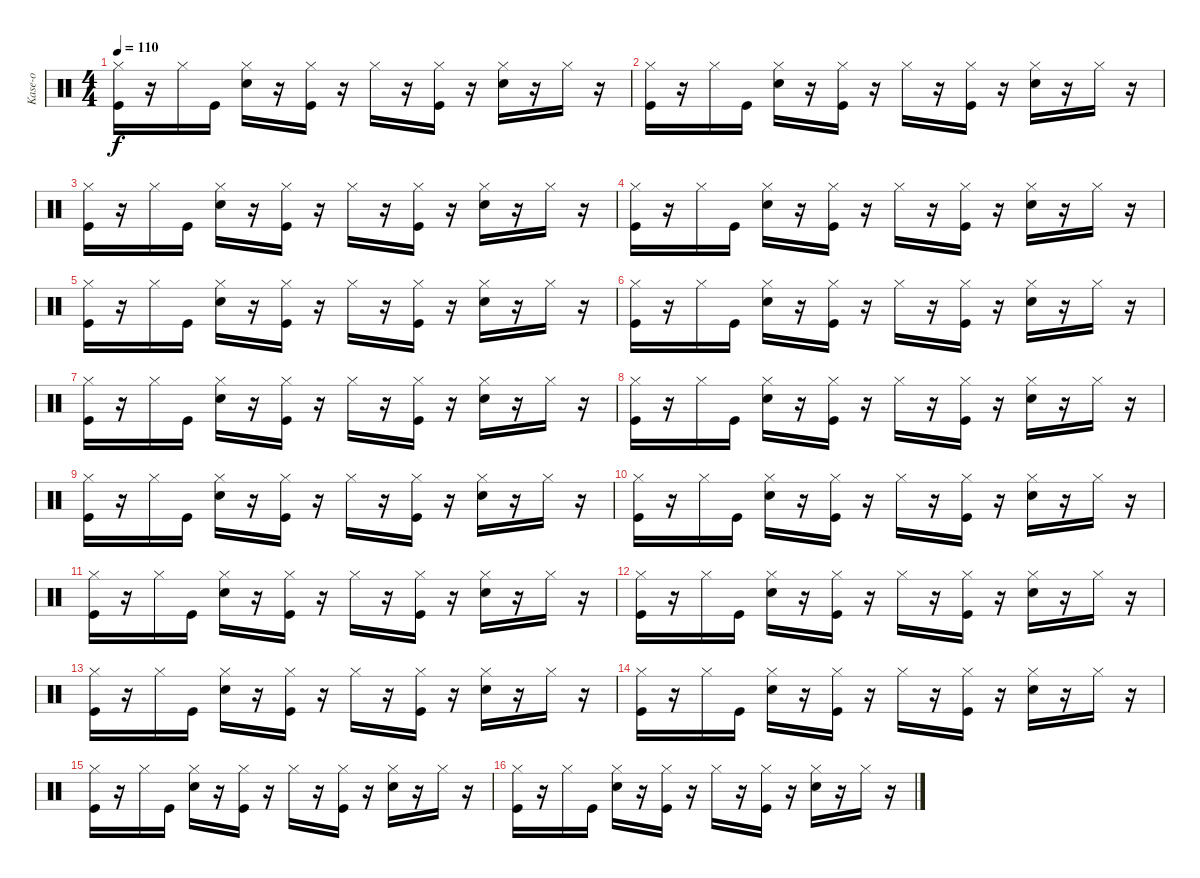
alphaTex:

\track ("Kase-o" "Kase-o") {instrument percussion}
\staff {score}
\articulation defaults
\ts (4 4)
\tempo 110
\clef neutral
\ks c
("Hi-Hat (closed)" "Kick (hit)").16{dy f} r.16 "Hi-Hat (closed)".16 "Kick (hit)".16 ("Hi-Hat (closed)" "Electric Snare (hit)").16 r.16 ("Hi-Hat (closed)" "Kick (hit)").16 r.16 "Hi-Hat (closed)".16 r.16 ("Hi-Hat (closed)" "Kick (hit)").16 r.16 ("Hi-Hat (closed)" "Electric Snare (hit)").16 r.16 "Hi-Hat (closed)".16 r.16 |
("Hi-Hat (closed)" "Kick (hit)").16 r.16 "Hi-Hat (closed)".16 "Kick (hit)".16 ("Hi-Hat (closed)" "Electric Snare (hit)").16 r.16 ("Hi-Hat (closed)" "Kick (hit)").16 r.16 "Hi-Hat (closed)".16 r.16 ("Hi-Hat (closed)" "Kick (hit)").16 r.16 ("Hi-Hat (closed)" "Electric Snare (hit)").16 r.16 "Hi-Hat (closed)".16 r.16 |
("Hi-Hat (closed)" "Kick (hit)").16 r.16 "Hi-Hat (closed)".16 "Kick (hit)".16 ("Hi-Hat (closed)" "Electric Snare (hit)").16 r.16 ("Hi-Hat (closed)" "Kick (hit)").16 r.16 "Hi-Hat (closed)".16 r.16 ("Hi-Hat (closed)" "Kick (hit)").16 r.16 ("Hi-Hat (closed)" "Electric Snare (hit)").16 r.16 "Hi-Hat (closed)".16 r.16 |
("Hi-Hat (closed)" "Kick (hit)").16 r.16 "Hi-Hat (closed)".16 "Kick (hit)".16 ("Hi-Hat (closed)" "Electric Snare (hit)").16 r.16 ("Hi-Hat (closed)" "Kick (hit)").16 r.16 "Hi-Hat (closed)".16 r.16 ("Hi-Hat (closed)" "Kick (hit)").16 r.16 ("Hi-Hat (closed)" "Electric Snare (hit)").16 r.16 "Hi-Hat (closed)".16 r.16 |
("Hi-Hat (closed)" "Kick (hit)").16 r.16 "Hi-Hat (closed)".16 "Kick (hit)".16 ("Hi-Hat (closed)" "Electric Snare (hit)").16 r.16 ("Hi-Hat (closed)" "Kick (hit)").16 r.16 "Hi-Hat (closed)".16 r.16 ("Hi-Hat (closed)" "Kick (hit)").16 r.16 ("Hi-Hat (closed)" "Electric Snare (hit)").16 r.16 "Hi-Hat (closed)".16 r.16 |
("Hi-Hat (closed)" "Kick (hit)").16 r.16 "Hi-Hat (closed)".16 "Kick (hit)".16 ("Hi-Hat (closed)" "Electric Snare (hit)").16 r.16 ("Hi-Hat (closed)" "Kick (hit)").16 r.16 "Hi-Hat (closed)".16 r.16 ("Hi-Hat (closed)" "Kick (hit)").16 r.16 ("Hi-Hat (closed)" "Electric Snare (hit)").16 r.16 "Hi-Hat (closed)".16 r.16 |
("Hi-Hat (closed)" "Kick (hit)").16 r.16 "Hi-Hat (closed)".16 "Kick (hit)".16 ("Hi-Hat (closed)" "Electric Snare (hit)").16 r.16 ("Hi-Hat (closed)" "Kick (hit)").16 r.16 "Hi-Hat (closed)".16 r.16 ("Hi-Hat (closed)" "Kick (hit)").16 r.16 ("Hi-Hat (closed)" "Electric Snare (hit)").16 r.16 "Hi-Hat (closed)".16 r.16 |
("Hi-Hat (closed)" "Kick (hit)").16 r.16 "Hi-Hat (closed)".16 "Kick (hit)".16 ("Hi-Hat (closed)" "Electric Snare (hit)").16 r.16 ("Hi-Hat (closed)" "Kick (hit)").16 r.16 "Hi-Hat (closed)".16 r.16 ("Hi-Hat (closed)" "Kick (hit)").16 r.16 ("Hi-Hat (closed)" "Electric Snare (hit)").16 r.16 "Hi-Hat (closed)".16 r.16 |
("Hi-Hat (closed)" "Kick (hit)").16 r.16 "Hi-Hat (closed)".16 "Kick (hit)".16 ("Hi-Hat (closed)" "Electric Snare (hit)").16 r.16 ("Hi-Hat (closed)" "Kick (hit)").16 r.16 "Hi-Hat (closed)".16 r.16 ("Hi-Hat (closed)" "Kick (hit)").16 r.16 ("Hi-Hat (closed)" "Electric Snare (hit)").16 r.16 "Hi-Hat (closed)".16 r.16 |
("Hi-Hat (closed)" "Kick (hit)").16 r.16 "Hi-Hat (closed)".16 "Kick (hit)".16 ("Hi-Hat (closed)" "Electric Snare (hit)").16 r.16 ("Hi-Hat (closed)" "Kick (hit)").16 r.16 "Hi-Hat (closed)".16 r.16 ("Hi-Hat (closed)" "Kick (hit)").16 r.16 ("Hi-Hat (closed)" "Electric Snare (hit)").16 r.16 "Hi-Hat (closed)".16 r.16 |
("Hi-Hat (closed)" "Kick (hit)").16 r.16 "Hi-Hat (closed)".16 "Kick (hit)".16 ("Hi-Hat (closed)" "Electric Snare (hit)").16 r.16 ("Hi-Hat (closed)" "Kick (hit)").16 r.16 "Hi-Hat (closed)".16 r.16 ("Hi-Hat (closed)" "Kick (hit)").16 r.16 ("Hi-Hat (closed)" "Electric Snare (hit)").16 r.16 "Hi-Hat (closed)".16 r.16 |
("Hi-Hat (closed)" "Kick (hit)").16 r.16 "Hi-Hat (closed)".16 "Kick (hit)".16 ("Hi-Hat (closed)" "Electric Snare (hit)").16 r.16 ("Hi-Hat (closed)" "Kick (hit)").16 r.16 "Hi-Hat (closed)".16 r.16 ("Hi-Hat (closed)" "Kick (hit)").16 r.16 ("Hi-Hat (closed)" "Electric Snare (hit)").16 r.16 "Hi-Hat (closed)".16 r.16 |
("Hi-Hat (closed)" "Kick (hit)").16 r.16 "Hi-Hat (closed)".16 "Kick (hit)".16 ("Hi-Hat (closed)" "Electric Snare (hit)").16 r.16 ("Hi-Hat (closed)" "Kick (hit)").16 r.16 "Hi-Hat (closed)".16 r.16 ("Hi-Hat (closed)" "Kick (hit)").16 r.16 ("Hi-Hat (closed)" "Electric Snare (hit)").16 r.16 "Hi-Hat (closed)".16 r.16 |
("Hi-Hat (closed)" "Kick (hit)").16 r.16 "Hi-Hat (closed)".16 "Kick (hit)".16 ("Hi-Hat (closed)" "Electric Snare (hit)").16 r.16 ("Hi-Hat (closed)" "Kick (hit)").16 r.16 "Hi-Hat (closed)".16 r.16 ("Hi-Hat (closed)" "Kick (hit)").16 r.16 ("Hi-Hat (closed)" "Electric Snare (hit)").16 r.16 "Hi-Hat (closed)".16 r.16 |
("Hi-Hat (closed)" "Kick (hit)").16 r.16 "Hi-Hat (closed)".16 "Kick (hit)".16 ("Hi-Hat (closed)" "Electric Snare (hit)").16 r.16 ("Hi-Hat (closed)" "Kick (hit)").16 r.16 "Hi-Hat (closed)".16 r.16 ("Hi-Hat (closed)" "Kick (hit)").16 r.16 ("Hi-Hat (closed)" "Electric Snare (hit)").16 r.16 "Hi-Hat (closed)".16 r.16 |
("Hi-Hat (closed)" "Kick (hit)").16 r.16 "Hi-Hat (closed)".16 "Kick (hit)".16 ("Hi-Hat (closed)" "Electric Snare (hit)").16 r.16 ("Hi-Hat (closed)" "Kick (hit)").16 r.16 "Hi-Hat (closed)".16 r.16 ("Hi-Hat (closed)" "Kick (hit)").16 r.16 ("Hi-Hat (closed)" "Electric Snare (hit)").16 r.16 "Hi-Hat (closed)".16 r.16
